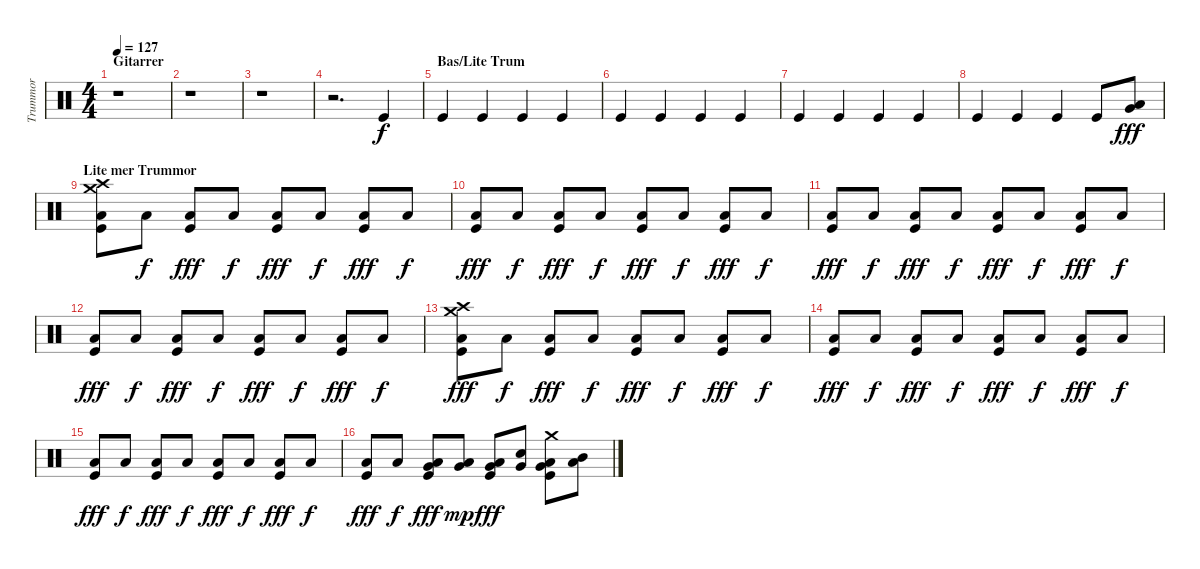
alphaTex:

\track ("Trummor" "Trummor") {instrument percussion}
\staff {score}
\articulation defaults
\ts (4 4)
\section ("" "Gitarrer")
\tempo 127
\clef neutral
\ks c
r.1{dy f} |
r.1 |
r.1 |
r.2{d} "Kick (hit)".4 |
\section ("" "Bas/Lite Trum")
"Kick (hit)".4 "Kick (hit)".4 "Kick (hit)".4 "Kick (hit)".4 |
"Kick (hit)".4 "Kick (hit)".4 "Kick (hit)".4 "Kick (hit)".4 |
"Kick (hit)".4 "Kick (hit)".4 "Kick (hit)".4 "Kick (hit)".4 |
"Kick (hit)".4 "Kick (hit)".4 "Kick (hit)".4 "Kick (hit)".8 ("Low Floor Tom (hit)" "Very Low Tom (hit)").8{dy fff} |
\section ("" "Lite mer Trummor")
("Crash high (hit)" "Crash medium (hit)" "Low Floor Tom (hit)" "Kick (hit)").8 "Low Floor Tom (hit)".8{dy f} ("Low Floor Tom (hit)" "Kick (hit)").8{dy fff} "Low Floor Tom (hit)".8{dy f} ("Low Floor Tom (hit)" "Kick (hit)").8{dy fff} "Low Floor Tom (hit)".8{dy f} ("Low Floor Tom (hit)" "Kick (hit)").8{dy fff} "Low Floor Tom (hit)".8{dy f} |
("Low Floor Tom (hit)" "Kick (hit)").8{dy fff} "Low Floor Tom (hit)".8{dy f} ("Low Floor Tom (hit)" "Kick (hit)").8{dy fff} "Low Floor Tom (hit)".8{dy f} ("Low Floor Tom (hit)" "Kick (hit)").8{dy fff} "Low Floor Tom (hit)".8{dy f} ("Low Floor Tom (hit)" "Kick (hit)").8{dy fff} "Low Floor Tom (hit)".8{dy f} |
("Low Floor Tom (hit)" "Kick (hit)").8{dy fff} "Low Floor Tom (hit)".8{dy f} ("Low Floor Tom (hit)" "Kick (hit)").8{dy fff} "Low Floor Tom (hit)".8{dy f} ("Low Floor Tom (hit)" "Kick (hit)").8{dy fff} "Low Floor Tom (hit)".8{dy f} ("Low Floor Tom (hit)" "Kick (hit)").8{dy fff} "Low Floor Tom (hit)".8{dy f} |
("Low Floor Tom (hit)" "Kick (hit)").8{dy fff} "Low Floor Tom (hit)".8{dy f} ("Low Floor Tom (hit)" "Kick (hit)").8{dy fff} "Low Floor Tom (hit)".8{dy f} ("Low Floor Tom (hit)" "Kick (hit)").8{dy fff} "Low Floor Tom (hit)".8{dy f} ("Low Floor Tom (hit)" "Kick (hit)").8{dy fff} "Low Floor Tom (hit)".8{dy f} |
("Crash high (hit)" "Crash medium (hit)" "Low Floor Tom (hit)" "Kick (hit)").8{dy fff} "Low Floor Tom (hit)".8{dy f} ("Low Floor Tom (hit)" "Kick (hit)").8{dy fff} "Low Floor Tom (hit)".8{dy f} ("Low Floor Tom (hit)" "Kick (hit)").8{dy fff} "Low Floor Tom (hit)".8{dy f} ("Low Floor Tom (hit)" "Kick (hit)").8{dy fff} "Low Floor Tom (hit)".8{dy f} |
("Low Floor Tom (hit)" "Kick (hit)").8{dy fff} "Low Floor Tom (hit)".8{dy f} ("Low Floor Tom (hit)" "Kick (hit)").8{dy fff} "Low Floor Tom (hit)".8{dy f} ("Low Floor Tom (hit)" "Kick (hit)").8{dy fff} "Low Floor Tom (hit)".8{dy f} ("Low Floor Tom (hit)" "Kick (hit)").8{dy fff} "Low Floor Tom (hit)".8{dy f} |
("Low Floor Tom (hit)" "Kick (hit)").8{dy fff} "Low Floor Tom (hit)".8{dy f} ("Low Floor Tom (hit)" "Kick (hit)").8{dy fff} "Low Floor Tom (hit)".8{dy f} ("Low Floor Tom (hit)" "Kick (hit)").8{dy fff} "Low Floor Tom (hit)".8{dy f} ("Low Floor Tom (hit)" "Kick (hit)").8{dy fff} "Low Floor Tom (hit)".8{dy f} |
("Low Floor Tom (hit)" "Kick (hit)").8{dy fff} "Low Floor Tom (hit)".8{dy f} ("Very Low Tom (hit)" "Low Floor Tom (hit)" "Kick (hit)").8{dy fff} ("Very Low Tom (hit)" "Low Floor Tom (hit)").8{dy mp} ("Very Low Tom (hit)" "Low Floor Tom (hit)" "Kick (hit)").8{dy fff} ("Very Low Tom (hit)" "Electric Snare (hit)").8 ("Crash medium (hit)" "Very Low Tom (hit)" "Low Floor Tom (hit)" "Kick (hit)").8 ("Mid Tom (hit)" "Low Tom (hit)").8
